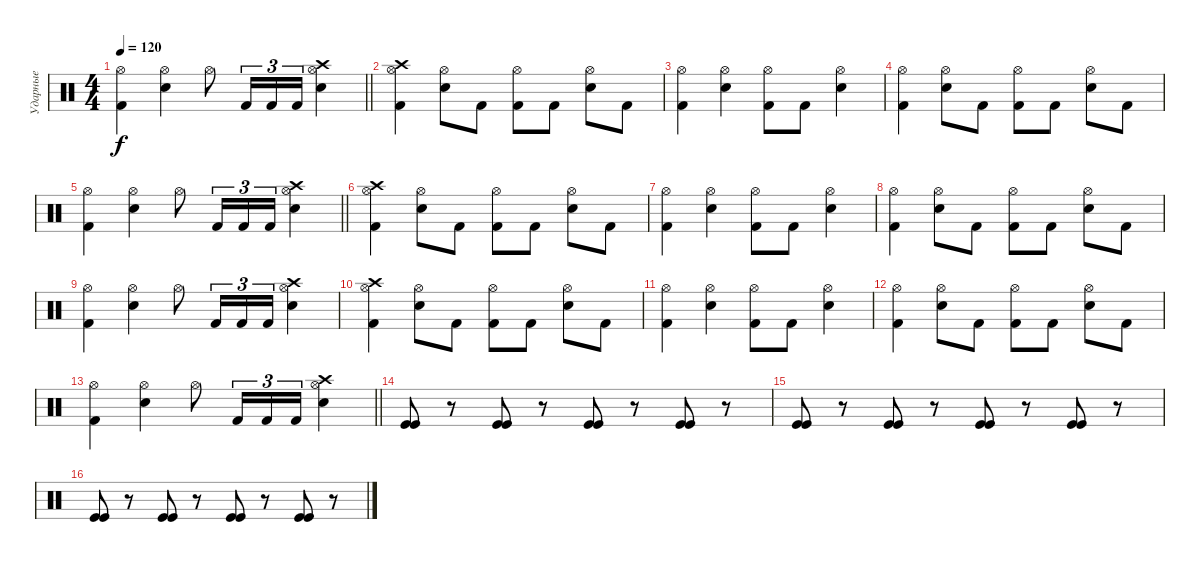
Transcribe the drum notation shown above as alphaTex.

\track ("Ударные" "Ударные") {instrument percussion}
\staff {score}
\articulation defaults
\ts (4 4)
\tempo 120
\clef neutral
\barLineRight lightlight
\ks c
("Kick (hit) 2" "Hi-Hat (open)").4{dy f} ("Snare (hit) 2" "Hi-Hat (open)").4 "Hi-Hat (open)".8 "Kick (hit) 2".16{tu (3 2)} "Kick (hit) 2".16{tu (3 2)} "Kick (hit) 2".16{tu (3 2)} ("Snare (hit) 2" "Hi-Hat (open)" "Crash high (hit)").4 |
("Kick (hit) 2" "Hi-Hat (open)" "Crash high (hit)").4 ("Snare (hit) 2" "Hi-Hat (open)").8 "Kick (hit) 2".8 ("Kick (hit) 2" "Hi-Hat (open)").8 "Kick (hit) 2".8 ("Snare (hit) 2" "Hi-Hat (open)").8 "Kick (hit) 2".8 |
("Kick (hit) 2" "Hi-Hat (open)").4 ("Snare (hit) 2" "Hi-Hat (open)").4 ("Kick (hit) 2" "Hi-Hat (open)").8 "Kick (hit) 2".8 ("Snare (hit) 2" "Hi-Hat (open)").4 |
("Kick (hit) 2" "Hi-Hat (open)").4 ("Snare (hit) 2" "Hi-Hat (open)").8 "Kick (hit) 2".8 ("Kick (hit) 2" "Hi-Hat (open)").8 "Kick (hit) 2".8 ("Snare (hit) 2" "Hi-Hat (open)").8 "Kick (hit) 2".8 |
\barLineRight lightlight
("Kick (hit) 2" "Hi-Hat (open)").4 ("Snare (hit) 2" "Hi-Hat (open)").4 "Hi-Hat (open)".8 "Kick (hit) 2".16{tu (3 2)} "Kick (hit) 2".16{tu (3 2)} "Kick (hit) 2".16{tu (3 2)} ("Snare (hit) 2" "Hi-Hat (open)" "Crash high (hit)").4 |
("Kick (hit) 2" "Hi-Hat (open)" "Crash high (hit)").4 ("Snare (hit) 2" "Hi-Hat (open)").8 "Kick (hit) 2".8 ("Kick (hit) 2" "Hi-Hat (open)").8 "Kick (hit) 2".8 ("Snare (hit) 2" "Hi-Hat (open)").8 "Kick (hit) 2".8 |
("Kick (hit) 2" "Hi-Hat (open)").4 ("Snare (hit) 2" "Hi-Hat (open)").4 ("Kick (hit) 2" "Hi-Hat (open)").8 "Kick (hit) 2".8 ("Snare (hit) 2" "Hi-Hat (open)").4 |
("Kick (hit) 2" "Hi-Hat (open)").4 ("Snare (hit) 2" "Hi-Hat (open)").8 "Kick (hit) 2".8 ("Kick (hit) 2" "Hi-Hat (open)").8 "Kick (hit) 2".8 ("Snare (hit) 2" "Hi-Hat (open)").8 "Kick (hit) 2".8 |
("Kick (hit) 2" "Hi-Hat (open)").4 ("Snare (hit) 2" "Hi-Hat (open)").4 "Hi-Hat (open)".8 "Kick (hit) 2".16{tu (3 2)} "Kick (hit) 2".16{tu (3 2)} "Kick (hit) 2".16{tu (3 2)} ("Snare (hit) 2" "Hi-Hat (open)" "Crash high (hit)").4 |
("Kick (hit) 2" "Hi-Hat (open)" "Crash high (hit)").4 ("Snare (hit) 2" "Hi-Hat (open)").8 "Kick (hit) 2".8 ("Kick (hit) 2" "Hi-Hat (open)").8 "Kick (hit) 2".8 ("Snare (hit) 2" "Hi-Hat (open)").8 "Kick (hit) 2".8 |
("Kick (hit) 2" "Hi-Hat (open)").4 ("Snare (hit) 2" "Hi-Hat (open)").4 ("Kick (hit) 2" "Hi-Hat (open)").8 "Kick (hit) 2".8 ("Snare (hit) 2" "Hi-Hat (open)").4 |
("Kick (hit) 2" "Hi-Hat (open)").4 ("Snare (hit) 2" "Hi-Hat (open)").8 "Kick (hit) 2".8 ("Kick (hit) 2" "Hi-Hat (open)").8 "Kick (hit) 2".8 ("Snare (hit) 2" "Hi-Hat (open)").8 "Kick (hit) 2".8 |
\barLineRight lightlight
("Kick (hit) 2" "Hi-Hat (open)").4 ("Snare (hit) 2" "Hi-Hat (open)").4 "Hi-Hat (open)".8 "Kick (hit) 2".16{tu (3 2)} "Kick (hit) 2".16{tu (3 2)} "Kick (hit) 2".16{tu (3 2)} ("Snare (hit) 2" "Hi-Hat (open)" "Crash high (hit)").4 |
("Kick (hit)" "Kick (hit)").8 r.8 ("Kick (hit)" "Kick (hit)").8 r.8 ("Kick (hit)" "Kick (hit)").8 r.8 ("Kick (hit)" "Kick (hit)").8 r.8 |
("Kick (hit)" "Kick (hit)").8 r.8 ("Kick (hit)" "Kick (hit)").8 r.8 ("Kick (hit)" "Kick (hit)").8 r.8 ("Kick (hit)" "Kick (hit)").8 r.8 |
("Kick (hit)" "Kick (hit)").8 r.8 ("Kick (hit)" "Kick (hit)").8 r.8 ("Kick (hit)" "Kick (hit)").8 r.8 ("Kick (hit)" "Kick (hit)").8 r.8
